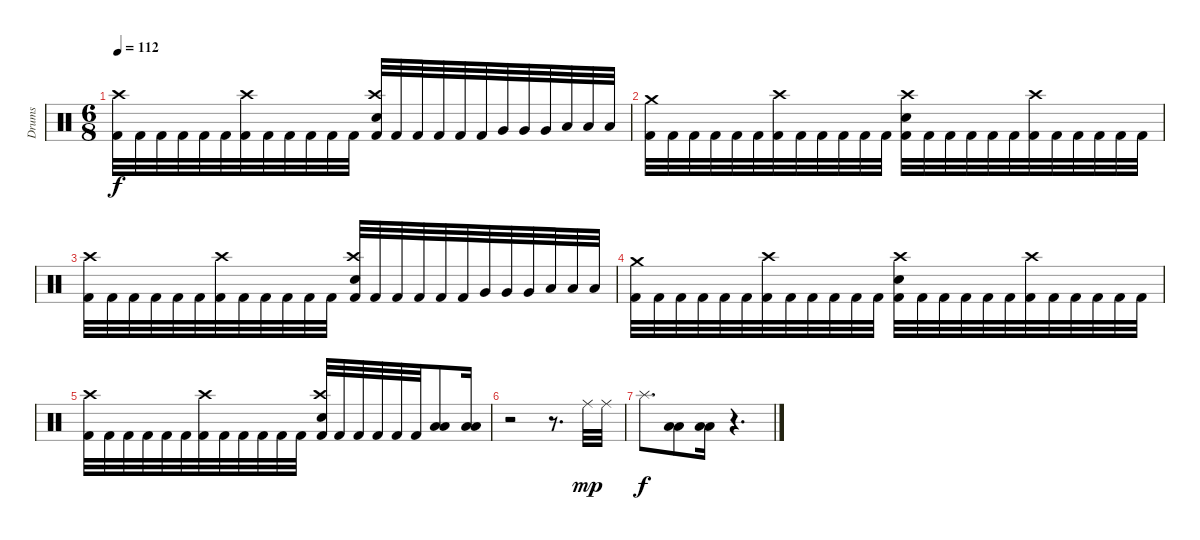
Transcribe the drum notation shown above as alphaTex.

\track ("Drums" "Drums") {instrument percussion}
\staff {score}
\articulation defaults
\ts (6 8)
\tempo 112
\clef neutral
\ks c
("Kick (hit) 2" "Crash high (hit)").32{dy f} "Kick (hit) 2".32 "Kick (hit) 2".32 "Kick (hit) 2".32 "Kick (hit) 2".32 "Kick (hit) 2".32 ("Kick (hit) 2" "Crash high (hit)").32 "Kick (hit) 2".32 "Kick (hit) 2".32 "Kick (hit) 2".32 "Kick (hit) 2".32 "Kick (hit) 2".32 ("Kick (hit) 2" "Crash high (hit)" "Electric Snare (hit)").32 "Kick (hit) 2".32 "Kick (hit) 2".32 "Kick (hit) 2".32 "Kick (hit) 2".32 "Kick (hit) 2".32 "Very Low Tom (hit)".32 "Very Low Tom (hit)".32 "Very Low Tom (hit)".32 "Low Floor Tom (hit)".32 "Low Floor Tom (hit)".32 "Low Floor Tom (hit)".32 |
("Kick (hit) 2" "Crash medium (hit)").32 "Kick (hit) 2".32 "Kick (hit) 2".32 "Kick (hit) 2".32 "Kick (hit) 2".32 "Kick (hit) 2".32 ("Kick (hit) 2" "Crash high (hit)").32 "Kick (hit) 2".32 "Kick (hit) 2".32 "Kick (hit) 2".32 "Kick (hit) 2".32 "Kick (hit) 2".32 ("Kick (hit) 2" "Crash high (hit)" "Electric Snare (hit)").32 "Kick (hit) 2".32 "Kick (hit) 2".32 "Kick (hit) 2".32 "Kick (hit) 2".32 "Kick (hit) 2".32 ("Kick (hit) 2" "Crash high (hit)").32 "Kick (hit) 2".32 "Kick (hit) 2".32 "Kick (hit) 2".32 "Kick (hit) 2".32 "Kick (hit) 2".32 |
("Kick (hit) 2" "Crash high (hit)").32 "Kick (hit) 2".32 "Kick (hit) 2".32 "Kick (hit) 2".32 "Kick (hit) 2".32 "Kick (hit) 2".32 ("Kick (hit) 2" "Crash high (hit)").32 "Kick (hit) 2".32 "Kick (hit) 2".32 "Kick (hit) 2".32 "Kick (hit) 2".32 "Kick (hit) 2".32 ("Kick (hit) 2" "Crash high (hit)" "Electric Snare (hit)").32 "Kick (hit) 2".32 "Kick (hit) 2".32 "Kick (hit) 2".32 "Kick (hit) 2".32 "Kick (hit) 2".32 "Very Low Tom (hit)".32 "Very Low Tom (hit)".32 "Very Low Tom (hit)".32 "Low Floor Tom (hit)".32 "Low Floor Tom (hit)".32 "Low Floor Tom (hit)".32 |
("Kick (hit) 2" "Crash medium (hit)").32 "Kick (hit) 2".32 "Kick (hit) 2".32 "Kick (hit) 2".32 "Kick (hit) 2".32 "Kick (hit) 2".32 ("Kick (hit) 2" "Crash high (hit)").32 "Kick (hit) 2".32 "Kick (hit) 2".32 "Kick (hit) 2".32 "Kick (hit) 2".32 "Kick (hit) 2".32 ("Kick (hit) 2" "Crash high (hit)" "Electric Snare (hit)").32 "Kick (hit) 2".32 "Kick (hit) 2".32 "Kick (hit) 2".32 "Kick (hit) 2".32 "Kick (hit) 2".32 ("Kick (hit) 2" "Crash high (hit)").32 "Kick (hit) 2".32 "Kick (hit) 2".32 "Kick (hit) 2".32 "Kick (hit) 2".32 "Kick (hit) 2".32 |
("Kick (hit) 2" "Crash high (hit)").32 "Kick (hit) 2".32 "Kick (hit) 2".32 "Kick (hit) 2".32 "Kick (hit) 2".32 "Kick (hit) 2".32 ("Kick (hit) 2" "Crash high (hit)").32 "Kick (hit) 2".32 "Kick (hit) 2".32 "Kick (hit) 2".32 "Kick (hit) 2".32 "Kick (hit) 2".32 ("Kick (hit) 2" "Crash high (hit)" "Electric Snare (hit)").32 "Kick (hit) 2".32 "Kick (hit) 2".32 "Kick (hit) 2".32 "Kick (hit) 2".32 "Kick (hit) 2".32 ("Low Tom (hit)" "Low Floor Tom (hit)").8 ("Low Tom (hit)" "Low Floor Tom (hit)").16 |
r.2 r.8{d} "Ride (middle)".32{dy mp} "Ride (middle)".32 |
"Splash (hit)".8{d dy f} ("Low Tom (hit)" "Low Floor Tom (hit)").8 ("Low Tom (hit)" "Low Floor Tom (hit)").16 r.4{d}
